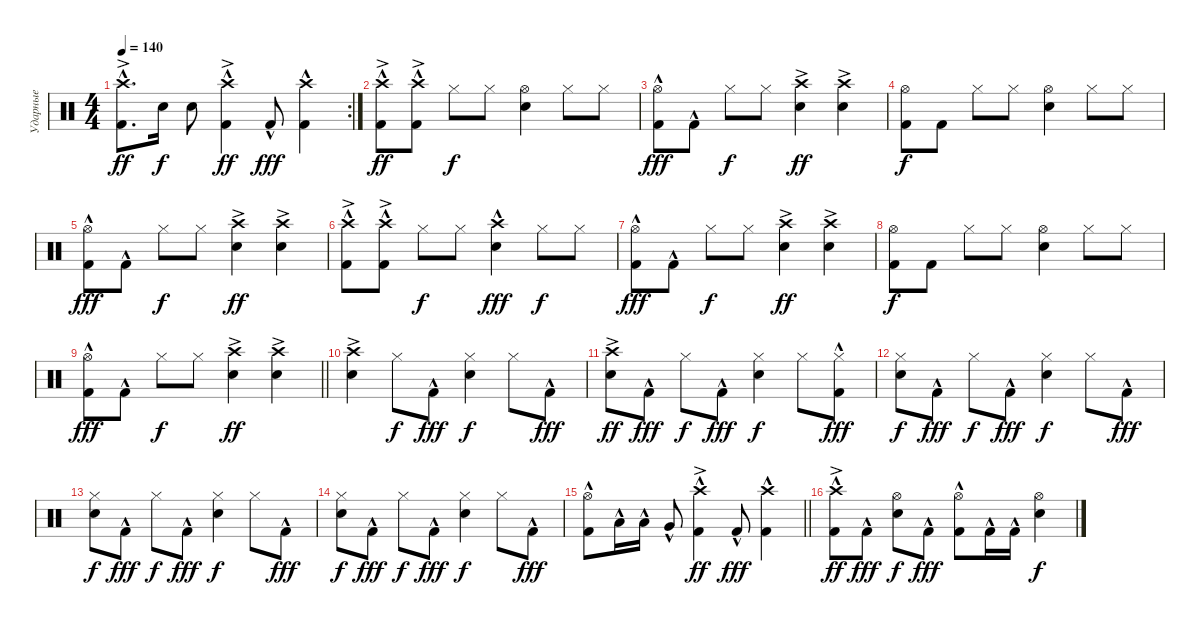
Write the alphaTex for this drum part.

\track ("Ударные" "Ударные") {instrument percussion}
\staff {score}
\articulation defaults
\rc 2
\ts (4 4)
\tempo 140
\clef neutral
\ks c
("Kick (hit) 2"{hac} "Crash high (hit)"{ac}).8{d dy ff} "Snare (hit) 2".16{dy f} "Snare (hit) 2".8 ("Kick (hit) 2"{hac} "Crash high (hit)"{ac}).4{dy ff} "Kick (hit) 2"{hac}.8{dy fff} ("Kick (hit) 2"{hac} "Crash high (hit)").4 |
("Kick (hit) 2"{hac} "Crash high (hit)"{ac}).8{dy ff} ("Kick (hit) 2"{hac} "Crash high (hit)"{ac}).8 "Hi-Hat (closed)".8{dy f} "Hi-Hat (closed)".8 ("Snare (hit) 2" "Hi-Hat (open)").4 "Hi-Hat (closed)".8 "Hi-Hat (closed)".8 |
("Kick (hit) 2"{hac} "Hi-Hat (open)").8{dy fff} "Kick (hit) 2"{hac}.8 "Hi-Hat (closed)".8{dy f} "Hi-Hat (closed)".8 ("Snare (hit) 2" "Crash high (hit)"{ac}).4{dy ff} ("Snare (hit) 2" "Crash high (hit)"{ac}).4 |
("Kick (hit) 2" "Hi-Hat (open)").8{dy f} "Kick (hit) 2".8 "Hi-Hat (closed)".8 "Hi-Hat (closed)".8 ("Snare (hit) 2" "Hi-Hat (open)").4 "Hi-Hat (closed)".8 "Hi-Hat (closed)".8 |
("Kick (hit) 2"{hac} "Hi-Hat (open)").8{dy fff} "Kick (hit) 2"{hac}.8 "Hi-Hat (closed)".8{dy f} "Hi-Hat (closed)".8 ("Snare (hit) 2" "Crash high (hit)"{ac}).4{dy ff} ("Snare (hit) 2" "Crash high (hit)"{ac}).4 |
("Kick (hit) 2"{hac} "Crash high (hit)"{ac}).8 ("Kick (hit) 2"{hac} "Crash high (hit)"{ac}).8 "Hi-Hat (closed)".8{dy f} "Hi-Hat (closed)".8 ("Snare (hit) 2" "Crash high (hit)"{hac}).4{dy fff} "Hi-Hat (closed)".8{dy f} "Hi-Hat (closed)".8 |
("Kick (hit) 2"{hac} "Hi-Hat (open)").8{dy fff} "Kick (hit) 2"{hac}.8 "Hi-Hat (closed)".8{dy f} "Hi-Hat (closed)".8 ("Snare (hit) 2" "Crash high (hit)"{ac}).4{dy ff} ("Snare (hit) 2" "Crash high (hit)"{ac}).4 |
("Kick (hit) 2" "Hi-Hat (open)").8{dy f} "Kick (hit) 2".8 "Hi-Hat (closed)".8 "Hi-Hat (closed)".8 ("Snare (hit) 2" "Hi-Hat (open)").4 "Hi-Hat (closed)".8 "Hi-Hat (closed)".8 |
\barLineRight lightlight
("Kick (hit) 2"{hac} "Hi-Hat (open)").8{dy fff} "Kick (hit) 2"{hac}.8 "Hi-Hat (closed)".8{dy f} "Hi-Hat (closed)".8 ("Snare (hit) 2" "Crash high (hit)"{ac}).4{dy ff} ("Snare (hit) 2" "Crash high (hit)"{ac}).4 |
("Snare (hit) 2" "Crash high (hit)"{ac}).4 "Hi-Hat (closed)".8{dy f} "Kick (hit) 2"{hac}.8{dy fff} ("Snare (hit) 2" "Hi-Hat (closed)").4{dy f} "Hi-Hat (closed)".8 "Kick (hit) 2"{hac}.8{dy fff} |
("Snare (hit) 2" "Crash high (hit)"{ac}).8{dy ff} "Kick (hit) 2"{hac}.8{dy fff} "Hi-Hat (closed)".8{dy f} "Kick (hit) 2"{hac}.8{dy fff} ("Snare (hit) 2" "Hi-Hat (closed)").4{dy f} "Hi-Hat (closed)".8 ("Kick (hit) 2"{hac} "Hi-Hat (closed)").8{dy fff} |
("Snare (hit) 2" "Hi-Hat (closed)").8{dy f} "Kick (hit) 2"{hac}.8{dy fff} "Hi-Hat (closed)".8{dy f} "Kick (hit) 2"{hac}.8{dy fff} ("Snare (hit) 2" "Hi-Hat (closed)").4{dy f} "Hi-Hat (closed)".8 "Kick (hit) 2"{hac}.8{dy fff} |
("Snare (hit) 2" "Hi-Hat (closed)").8{dy f} "Kick (hit) 2"{hac}.8{dy fff} "Hi-Hat (closed)".8{dy f} "Kick (hit) 2"{hac}.8{dy fff} ("Snare (hit) 2" "Hi-Hat (closed)").4{dy f} "Hi-Hat (closed)".8 "Kick (hit) 2"{hac}.8{dy fff} |
("Snare (hit) 2" "Hi-Hat (closed)").8{dy f} "Kick (hit) 2"{hac}.8{dy fff} "Hi-Hat (closed)".8{dy f} "Kick (hit) 2"{hac}.8{dy fff} ("Snare (hit) 2" "Hi-Hat (closed)").4{dy f} "Hi-Hat (closed)".8 "Kick (hit) 2"{hac}.8{dy fff} |
\barLineRight lightlight
("Kick (hit) 2"{hac} "Hi-Hat (open)").8 "Low Tom (hit)"{hac}.16 "Low Tom (hit)"{hac}.16 "Very Low Tom (hit)"{hac}.8 ("Kick (hit) 2"{hac} "Crash high (hit)"{ac}).4{dy ff} "Kick (hit) 2"{hac}.8{dy fff} ("Kick (hit) 2"{hac} "Crash high (hit)").4 |
("Kick (hit) 2"{hac} "Crash high (hit)"{ac}).8{dy ff} "Kick (hit) 2"{hac}.8{dy fff} ("Snare (hit) 2" "Hi-Hat (open)").8{dy f} "Kick (hit) 2"{hac}.8{dy fff} ("Kick (hit) 2"{hac} "Hi-Hat (open)").8 "Kick (hit) 2"{hac}.16 "Kick (hit) 2"{hac}.16 ("Snare (hit) 2" "Hi-Hat (open)").4{dy f}
